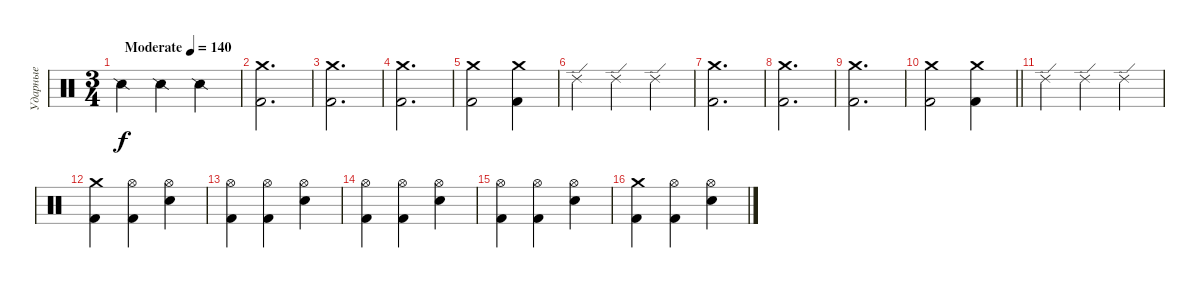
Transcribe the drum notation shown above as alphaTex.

\track ("Ударные" "Ударные") {instrument percussion}
\staff {score}
\articulation defaults
\ts (3 4)
\tempo (140 "Moderate")
\clef neutral
\ks c "Snare (side stick) 2".4{dy f} "Snare (side stick) 2".4 "Snare (side stick) 2".4
|
("Kick (hit) 2" "Crash medium (hit)").2{d} |
("Kick (hit) 2" "Crash medium (hit)").2{d} |
("Kick (hit) 2" "Crash medium (hit)").2{d} |
("Kick (hit) 2" "Crash medium (hit)").2 ("Kick (hit) 2" "Crash medium (hit)").4 |
"Ride (edge) 2".4 "Ride (edge) 2".4 "Ride (edge) 2".4 |
("Kick (hit) 2" "Crash medium (hit)").2{d} |
("Kick (hit) 2" "Crash medium (hit)").2{d} |
("Kick (hit) 2" "Crash medium (hit)").2{d} |
\barLineRight lightlight
("Kick (hit) 2" "Crash medium (hit)").2 ("Kick (hit) 2" "Crash medium (hit)").4 |
"Ride (edge) 2".4 "Ride (edge) 2".4 "Ride (edge) 2".4 |
("Kick (hit) 2" "Crash medium (hit)").4 ("Kick (hit) 2" "Hi-Hat (open)").4 ("Hi-Hat (open)" "Electric Snare (hit)").4 |
("Kick (hit) 2" "Hi-Hat (open)").4 ("Kick (hit) 2" "Hi-Hat (open)").4 ("Hi-Hat (open)" "Electric Snare (hit)").4 |
("Kick (hit) 2" "Hi-Hat (open)").4 ("Kick (hit) 2" "Hi-Hat (open)").4 ("Hi-Hat (open)" "Electric Snare (hit)").4 |
("Kick (hit) 2" "Hi-Hat (open)").4 ("Kick (hit) 2" "Hi-Hat (open)").4 ("Hi-Hat (open)" "Electric Snare (hit)").4 |
("Kick (hit) 2" "Crash medium (hit)").4 ("Kick (hit) 2" "Hi-Hat (open)").4 ("Hi-Hat (open)" "Electric Snare (hit)").4
